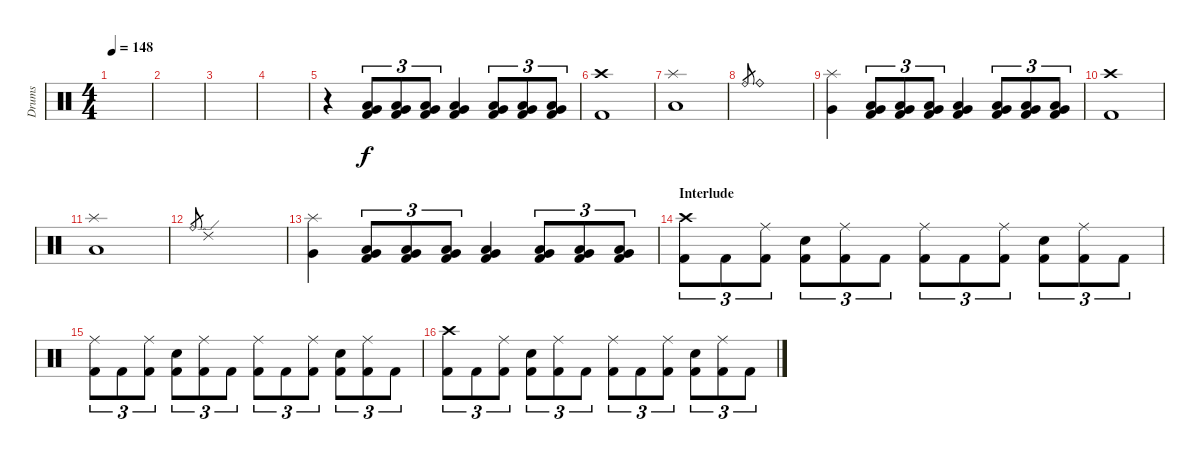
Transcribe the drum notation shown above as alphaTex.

\track ("Drums" "Drums") {instrument percussion}
\staff {score}
\articulation defaults
\ts (4 4)
\tempo 148
\clef neutral
\ks c
|
|
|
|
r.4 ("Low Tom (hit)" "Very Low Tom (hit)" "Kick (hit) 2").8{tu (3 2)} ("Low Tom (hit)" "Very Low Tom (hit)" "Kick (hit) 2").8{tu (3 2)} ("Low Tom (hit)" "Very Low Tom (hit)" "Kick (hit) 2").8{tu (3 2)} ("Low Tom (hit)" "Very Low Tom (hit)" "Kick (hit) 2").4 ("Low Floor Tom (hit)" "Very Low Tom (hit)" "Kick (hit) 2").8{tu (3 2)} ("Low Floor Tom (hit)" "Very Low Tom (hit)" "Kick (hit) 2").8{tu (3 2)} ("Low Floor Tom (hit)" "Very Low Tom (hit)" "Kick (hit) 2").8{tu (3 2)} |
("Crash high (hit)" "Kick (hit) 2").1 |
("Splash (hit)" "Low Floor Tom (hit)").1 |
"Ride (bell)".8{gr} "Ride (bell)".1 |
("Splash (hit)" "Very Low Tom (hit)").4 ("Low Tom (hit)" "Very Low Tom (hit)" "Kick (hit) 2").8{tu (3 2)} ("Low Tom (hit)" "Very Low Tom (hit)" "Kick (hit) 2").8{tu (3 2)} ("Low Tom (hit)" "Very Low Tom (hit)" "Kick (hit) 2").8{tu (3 2)} ("Low Tom (hit)" "Very Low Tom (hit)" "Kick (hit) 2").4 ("Low Floor Tom (hit)" "Very Low Tom (hit)" "Kick (hit) 2").8{tu (3 2)} ("Low Floor Tom (hit)" "Very Low Tom (hit)" "Kick (hit) 2").8{tu (3 2)} ("Low Floor Tom (hit)" "Very Low Tom (hit)" "Kick (hit) 2").8{tu (3 2)} |
("Crash high (hit)" "Kick (hit) 2").1 |
("Splash (hit)" "Low Floor Tom (hit)").1 |
"Ride (bell)".8{gr} "Ride (edge) 2".1 |
("Splash (hit)" "Very Low Tom (hit)").4 ("Low Tom (hit)" "Very Low Tom (hit)" "Kick (hit) 2").8{tu (3 2)} ("Low Tom (hit)" "Very Low Tom (hit)" "Kick (hit) 2").8{tu (3 2)} ("Low Tom (hit)" "Very Low Tom (hit)" "Kick (hit) 2").8{tu (3 2)} ("Low Tom (hit)" "Very Low Tom (hit)" "Kick (hit) 2").4 ("Low Floor Tom (hit)" "Very Low Tom (hit)" "Kick (hit) 2").8{tu (3 2)} ("Low Floor Tom (hit)" "Very Low Tom (hit)" "Kick (hit) 2").8{tu (3 2)} ("Low Floor Tom (hit)" "Very Low Tom (hit)" "Kick (hit) 2").8{tu (3 2)} |
\section ("" "Interlude")
("Crash high (hit)" "Kick (hit) 2").8{tu (3 2)} "Kick (hit) 2".8{tu (3 2)} ("Ride (middle)" "Kick (hit) 2").8{tu (3 2)} ("Snare (hit) 2" "Kick (hit) 2").8{tu (3 2)} ("Ride (middle)" "Kick (hit) 2").8{tu (3 2)} "Kick (hit) 2".8{tu (3 2)} ("Ride (middle)" "Kick (hit) 2").8{tu (3 2)} "Kick (hit) 2".8{tu (3 2)} ("Ride (middle)" "Kick (hit) 2").8{tu (3 2)} ("Snare (hit) 2" "Kick (hit) 2").8{tu (3 2)} ("Ride (middle)" "Kick (hit) 2").8{tu (3 2)} "Kick (hit) 2".8{tu (3 2)} |
("Ride (middle)" "Kick (hit) 2").8{tu (3 2)} "Kick (hit) 2".8{tu (3 2)} ("Ride (middle)" "Kick (hit) 2").8{tu (3 2)} ("Snare (hit) 2" "Kick (hit) 2").8{tu (3 2)} ("Ride (middle)" "Kick (hit) 2").8{tu (3 2)} "Kick (hit) 2".8{tu (3 2)} ("Ride (middle)" "Kick (hit) 2").8{tu (3 2)} "Kick (hit) 2".8{tu (3 2)} ("Ride (middle)" "Kick (hit) 2").8{tu (3 2)} ("Snare (hit) 2" "Kick (hit) 2").8{tu (3 2)} ("Ride (middle)" "Kick (hit) 2").8{tu (3 2)} "Kick (hit) 2".8{tu (3 2)} |
("Crash high (hit)" "Kick (hit) 2").8{tu (3 2)} "Kick (hit) 2".8{tu (3 2)} ("Ride (middle)" "Kick (hit) 2").8{tu (3 2)} ("Snare (hit) 2" "Kick (hit) 2").8{tu (3 2)} ("Ride (middle)" "Kick (hit) 2").8{tu (3 2)} "Kick (hit) 2".8{tu (3 2)} ("Ride (middle)" "Kick (hit) 2").8{tu (3 2)} "Kick (hit) 2".8{tu (3 2)} ("Ride (middle)" "Kick (hit) 2").8{tu (3 2)} ("Snare (hit) 2" "Kick (hit) 2").8{tu (3 2)} ("Ride (middle)" "Kick (hit) 2").8{tu (3 2)} "Kick (hit) 2".8{tu (3 2)}
